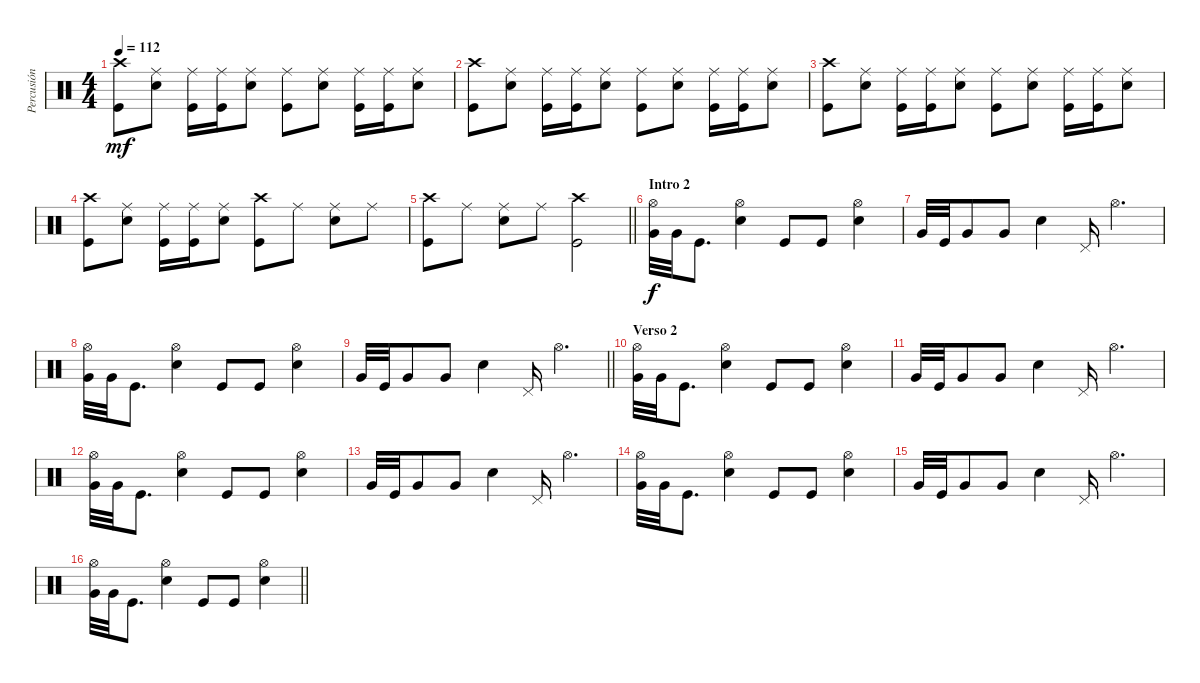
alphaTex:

\track ("Percusión" "Percusión") {instrument percussion}
\staff {score}
\articulation defaults
\ts (4 4)
\tempo 112
\clef neutral
\ks c
("Crash high (hit)" "Kick (hit)").8{dy mf} ("Ride (middle)" "Snare (hit) 2").8 ("Ride (middle)" "Kick (hit)").16 ("Ride (middle)" "Kick (hit)").16 ("Ride (middle)" "Snare (hit) 2").8 ("Ride (middle)" "Kick (hit)").8 ("Ride (middle)" "Snare (hit) 2").8 ("Ride (middle)" "Kick (hit)").16 ("Ride (middle)" "Kick (hit)").16 ("Ride (middle)" "Snare (hit) 2").8 |
("Crash high (hit)" "Kick (hit)").8 ("Ride (middle)" "Snare (hit) 2").8 ("Ride (middle)" "Kick (hit)").16 ("Ride (middle)" "Kick (hit)").16 ("Ride (middle)" "Snare (hit) 2").8 ("Ride (middle)" "Kick (hit)").8 ("Ride (middle)" "Snare (hit) 2").8 ("Ride (middle)" "Kick (hit)").16 ("Ride (middle)" "Kick (hit)").16 ("Ride (middle)" "Snare (hit) 2").8 |
("Crash high (hit)" "Kick (hit)").8 ("Ride (middle)" "Snare (hit) 2").8 ("Ride (middle)" "Kick (hit)").16 ("Ride (middle)" "Kick (hit)").16 ("Ride (middle)" "Snare (hit) 2").8 ("Ride (middle)" "Kick (hit)").8 ("Ride (middle)" "Snare (hit) 2").8 ("Ride (middle)" "Kick (hit)").16 ("Ride (middle)" "Kick (hit)").16 ("Ride (middle)" "Snare (hit) 2").8 |
("Crash high (hit)" "Kick (hit)").8 ("Ride (middle)" "Snare (hit) 2").8 ("Ride (middle)" "Kick (hit)").16 ("Ride (middle)" "Kick (hit)").16 ("Ride (middle)" "Snare (hit) 2").8 ("Crash high (hit)" "Kick (hit)").8 "Ride (middle)".8 ("Ride (middle)" "Snare (hit) 2").8 "Ride (middle)".8 |
\barLineRight lightlight
("Crash high (hit)" "Kick (hit)").8 "Ride (middle)".8 ("Ride (middle)" "Snare (hit) 2").8 "Ride (middle)".8 ("Crash high (hit)" "Kick (hit)").2 |
\section ("" "Intro 2")
("Hi-Hat (open)" "Very Low Tom (hit)").32{dy f} "Very Low Tom (hit)".32 "Kick (hit)".8{d} ("Hi-Hat (open)" "Snare (hit) 2").4 "Kick (hit)".8 "Kick (hit)".8 ("Hi-Hat (open)" "Snare (hit) 2").4 |
"Very Low Tom (hit)".32 "Kick (hit)".32 "Very Low Tom (hit)".8 "Very Low Tom (hit)".8 "Snare (hit) 2".4 "Pedal Hi-Hat (hit)".16 "Hi-Hat (open)".4{d} |
("Hi-Hat (open)" "Very Low Tom (hit)").32 "Very Low Tom (hit)".32 "Kick (hit)".8{d} ("Hi-Hat (open)" "Snare (hit) 2").4 "Kick (hit)".8 "Kick (hit)".8 ("Hi-Hat (open)" "Snare (hit) 2").4 |
\barLineRight lightlight "Very Low Tom (hit)".32 "Kick (hit)".32 "Very Low Tom (hit)".8 "Very Low Tom (hit)".8 "Snare (hit) 2".4 "Pedal Hi-Hat (hit)".16 "Hi-Hat (open)".4{d}
|
\section ("" "Verso 2")
("Hi-Hat (open)" "Very Low Tom (hit)").32 "Very Low Tom (hit)".32 "Kick (hit)".8{d} ("Hi-Hat (open)" "Snare (hit) 2").4 "Kick (hit)".8 "Kick (hit)".8 ("Hi-Hat (open)" "Snare (hit) 2").4 |
"Very Low Tom (hit)".32 "Kick (hit)".32 "Very Low Tom (hit)".8 "Very Low Tom (hit)".8 "Snare (hit) 2".4 "Pedal Hi-Hat (hit)".16 "Hi-Hat (open)".4{d} |
("Hi-Hat (open)" "Very Low Tom (hit)").32 "Very Low Tom (hit)".32 "Kick (hit)".8{d} ("Hi-Hat (open)" "Snare (hit) 2").4 "Kick (hit)".8 "Kick (hit)".8 ("Hi-Hat (open)" "Snare (hit) 2").4 |
"Very Low Tom (hit)".32 "Kick (hit)".32 "Very Low Tom (hit)".8 "Very Low Tom (hit)".8 "Snare (hit) 2".4 "Pedal Hi-Hat (hit)".16 "Hi-Hat (open)".4{d} |
("Hi-Hat (open)" "Very Low Tom (hit)").32 "Very Low Tom (hit)".32 "Kick (hit)".8{d} ("Hi-Hat (open)" "Snare (hit) 2").4 "Kick (hit)".8 "Kick (hit)".8 ("Hi-Hat (open)" "Snare (hit) 2").4 |
"Very Low Tom (hit)".32 "Kick (hit)".32 "Very Low Tom (hit)".8 "Very Low Tom (hit)".8 "Snare (hit) 2".4 "Pedal Hi-Hat (hit)".16 "Hi-Hat (open)".4{d} |
\barLineRight lightlight
("Hi-Hat (open)" "Very Low Tom (hit)").32 "Very Low Tom (hit)".32 "Kick (hit)".8{d} ("Hi-Hat (open)" "Snare (hit) 2").4 "Kick (hit)".8 "Kick (hit)".8 ("Hi-Hat (open)" "Snare (hit) 2").4
